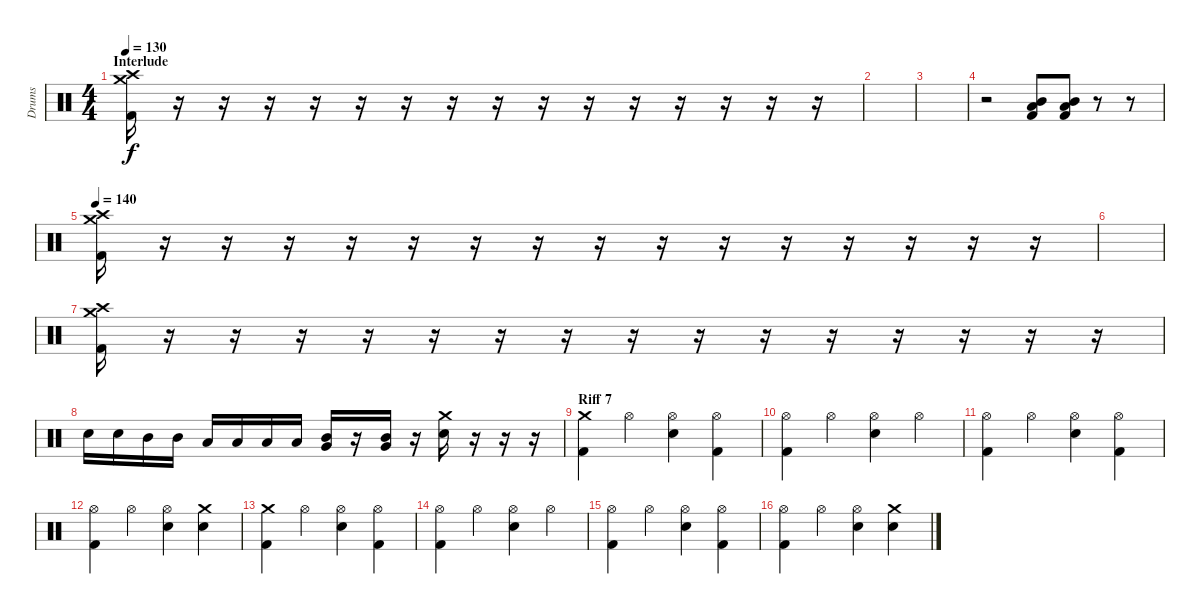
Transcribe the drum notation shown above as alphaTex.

\track ("Drums" "Drums") {instrument percussion}
\staff {score}
\articulation defaults
\ts (4 4)
\section ("" "Interlude")
\tempo 130
\clef neutral
\ks c
("Crash medium (hit)" "Crash high (hit)" "Kick (hit) 2").16{dy f} r.16 r.16 r.16 r.16 r.16 r.16 r.16 r.16 r.16 r.16 r.16 r.16 r.16 r.16 r.16 |
|
|
r.2 ("Mid Tom (hit)" "Low Tom (hit)" "Kick (hit) 2").8 ("Mid Tom (hit)" "Low Tom (hit)" "Kick (hit) 2").8 r.8 r.8 |
\tempo 140
("Crash medium (hit)" "Crash high (hit)" "Kick (hit) 2").16 r.16 r.16 r.16 r.16 r.16 r.16 r.16 r.16 r.16 r.16 r.16 r.16 r.16 r.16 r.16 |
|
("Crash medium (hit)" "Crash high (hit)" "Kick (hit) 2").16 r.16 r.16 r.16 r.16 r.16 r.16 r.16 r.16 r.16 r.16 r.16 r.16 r.16 r.16 r.16 |
"Electric Snare (hit)".16 "Electric Snare (hit)".16 "Mid Tom (hit)".16 "Mid Tom (hit)".16 "Low Tom (hit)".16 "Low Tom (hit)".16 "Low Tom (hit)".16 "Low Tom (hit)".16 ("Mid Tom (hit)" "Very Low Tom (hit)").16 r.16 ("Mid Tom (hit)" "Very Low Tom (hit)").16 r.16 ("Crash medium (hit)" "Electric Snare (hit)").16 r.16 r.16 r.16 |
\section ("" "Riff 7")
("Crash medium (hit)" "Kick (hit) 2").4 "Hi-Hat (open)".4 ("Hi-Hat (open)" "Electric Snare (hit)").4 ("Hi-Hat (open)" "Kick (hit) 2").4 |
("Hi-Hat (open)" "Kick (hit) 2").4 "Hi-Hat (open)".4 ("Hi-Hat (open)" "Electric Snare (hit)").4 "Hi-Hat (open)".4 |
("Hi-Hat (open)" "Kick (hit) 2").4 "Hi-Hat (open)".4 ("Hi-Hat (open)" "Electric Snare (hit)").4 ("Hi-Hat (open)" "Kick (hit) 2").4 |
("Hi-Hat (open)" "Kick (hit) 2").4 "Hi-Hat (open)".4 ("Hi-Hat (open)" "Electric Snare (hit)").4 ("Crash medium (hit)" "Electric Snare (hit)").4 |
("Crash medium (hit)" "Kick (hit) 2").4 "Hi-Hat (open)".4 ("Hi-Hat (open)" "Electric Snare (hit)").4 ("Hi-Hat (open)" "Kick (hit) 2").4 |
("Hi-Hat (open)" "Kick (hit) 2").4 "Hi-Hat (open)".4 ("Hi-Hat (open)" "Electric Snare (hit)").4 "Hi-Hat (open)".4 |
("Hi-Hat (open)" "Kick (hit) 2").4 "Hi-Hat (open)".4 ("Hi-Hat (open)" "Electric Snare (hit)").4 ("Hi-Hat (open)" "Kick (hit) 2").4 |
("Hi-Hat (open)" "Kick (hit) 2").4 "Hi-Hat (open)".4 ("Hi-Hat (open)" "Electric Snare (hit)").4 ("Crash medium (hit)" "Electric Snare (hit)").4
